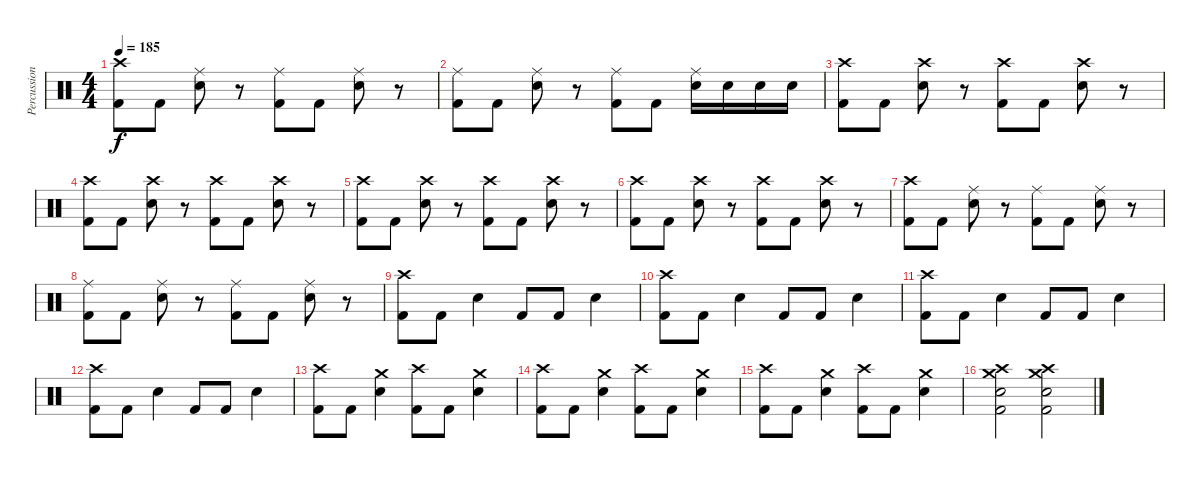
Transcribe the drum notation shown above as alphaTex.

\track ("Percussion" "Percussion") {instrument percussion}
\staff {score}
\articulation defaults
\ts (4 4)
\tempo 185
\clef neutral
\ks c
("Crash high (hit)" "Kick (hit) 2").8{dy f} "Kick (hit) 2".8 ("Ride (middle)" "Snare (hit) 2").8 r.8 ("Ride (middle)" "Kick (hit) 2").8 "Kick (hit) 2".8 ("Ride (middle)" "Snare (hit) 2").8 r.8 |
("Ride (middle)" "Kick (hit) 2").8 "Kick (hit) 2".8 ("Ride (middle)" "Snare (hit) 2").8 r.8 ("Ride (middle)" "Kick (hit) 2").8 "Kick (hit) 2".8 ("Ride (middle)" "Snare (hit) 2").16 "Snare (hit) 2".16 "Snare (hit) 2".16 "Snare (hit) 2".16 |
("Crash high (hit)" "Kick (hit) 2").8 "Kick (hit) 2".8 ("Crash high (hit)" "Snare (hit) 2").8 r.8 ("Crash high (hit)" "Kick (hit) 2").8 "Kick (hit) 2".8 ("Crash high (hit)" "Snare (hit) 2").8 r.8 |
("Crash high (hit)" "Kick (hit) 2").8 "Kick (hit) 2".8 ("Crash high (hit)" "Snare (hit) 2").8 r.8 ("Crash high (hit)" "Kick (hit) 2").8 "Kick (hit) 2".8 ("Crash high (hit)" "Snare (hit) 2").8 r.8 |
("Crash high (hit)" "Kick (hit) 2").8 "Kick (hit) 2".8 ("Crash high (hit)" "Snare (hit) 2").8 r.8 ("Crash high (hit)" "Kick (hit) 2").8 "Kick (hit) 2".8 ("Crash high (hit)" "Snare (hit) 2").8 r.8 |
("Crash high (hit)" "Kick (hit) 2").8 "Kick (hit) 2".8 ("Crash high (hit)" "Snare (hit) 2").8 r.8 ("Crash high (hit)" "Kick (hit) 2").8 "Kick (hit) 2".8 ("Crash high (hit)" "Snare (hit) 2").8 r.8 |
("Crash high (hit)" "Kick (hit) 2").8 "Kick (hit) 2".8 ("Ride (middle)" "Snare (hit) 2").8 r.8 ("Ride (middle)" "Kick (hit) 2").8 "Kick (hit) 2".8 ("Ride (middle)" "Snare (hit) 2").8 r.8 |
("Ride (middle)" "Kick (hit) 2").8 "Kick (hit) 2".8 ("Ride (middle)" "Snare (hit) 2").8 r.8 ("Ride (middle)" "Kick (hit) 2").8 "Kick (hit) 2".8 ("Ride (middle)" "Snare (hit) 2").8 r.8 |
("Crash high (hit)" "Kick (hit) 2").8 "Kick (hit) 2".8 "Snare (hit) 2".4 "Kick (hit) 2".8 "Kick (hit) 2".8 "Snare (hit) 2".4 |
("Crash high (hit)" "Kick (hit) 2").8 "Kick (hit) 2".8 "Snare (hit) 2".4 "Kick (hit) 2".8 "Kick (hit) 2".8 "Snare (hit) 2".4 |
("Crash high (hit)" "Kick (hit) 2").8 "Kick (hit) 2".8 "Snare (hit) 2".4 "Kick (hit) 2".8 "Kick (hit) 2".8 "Snare (hit) 2".4 |
("Crash high (hit)" "Kick (hit) 2").8 "Kick (hit) 2".8 "Snare (hit) 2".4 "Kick (hit) 2".8 "Kick (hit) 2".8 "Snare (hit) 2".4 |
("Crash high (hit)" "Kick (hit) 2").8 "Kick (hit) 2".8 ("Crash medium (hit)" "Snare (hit) 2").4 ("Crash high (hit)" "Kick (hit) 2").8 "Kick (hit) 2".8 ("Crash medium (hit)" "Snare (hit) 2").4 |
("Crash high (hit)" "Kick (hit) 2").8 "Kick (hit) 2".8 ("Crash medium (hit)" "Snare (hit) 2").4 ("Crash high (hit)" "Kick (hit) 2").8 "Kick (hit) 2".8 ("Crash medium (hit)" "Snare (hit) 2").4 |
("Crash high (hit)" "Kick (hit) 2").8 "Kick (hit) 2".8 ("Crash medium (hit)" "Snare (hit) 2").4 ("Crash high (hit)" "Kick (hit) 2").8 "Kick (hit) 2".8 ("Crash medium (hit)" "Snare (hit) 2").4 |
("Crash medium (hit)" "Crash high (hit)" "Snare (hit) 2" "Kick (hit) 2").2 ("Crash medium (hit)" "Crash high (hit)" "Snare (hit) 2" "Kick (hit) 2").2
